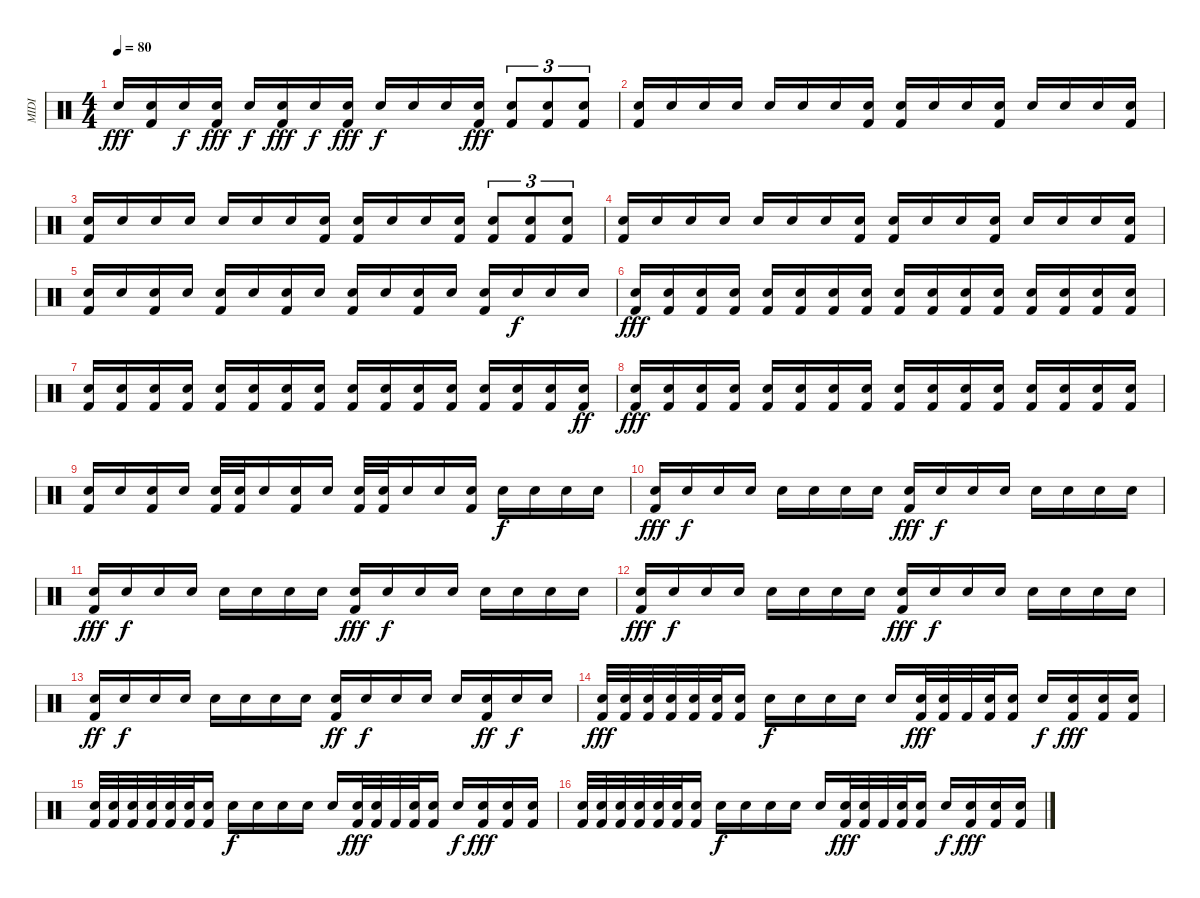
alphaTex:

\track ("MIDI" "MIDI") {instrument percussion}
\staff
\articulation defaults
\ts (4 4)
\tempo 80
\clef neutral
\ks c "Snare (hit)".16{dy fff}
("Kick (hit) 2" "Snare (hit)").16 "Snare (hit)".16{dy f} ("Kick (hit) 2" "Snare (hit)").16{dy fff} "Snare (hit)".16{dy f} ("Kick (hit) 2" "Snare (hit)").16{dy fff} "Snare (hit)".16{dy f} ("Kick (hit) 2" "Snare (hit)").16{dy fff} "Snare (hit)".16{dy f} "Snare (hit)".16 "Snare (hit)".16 ("Kick (hit) 2" "Snare (hit)").16{dy fff} ("Kick (hit) 2" "Snare (hit)").8{tu (3 2)} ("Kick (hit) 2" "Snare (hit)").8{tu (3 2)} ("Kick (hit) 2" "Snare (hit)").8{tu (3 2)} |
("Kick (hit) 2" "Snare (hit)").16 "Snare (hit)".16 "Snare (hit)".16 "Snare (hit)".16 "Snare (hit)".16 "Snare (hit)".16 "Snare (hit)".16 ("Kick (hit) 2" "Snare (hit)").16 ("Kick (hit) 2" "Snare (hit)").16 "Snare (hit)".16 "Snare (hit)".16 ("Kick (hit) 2" "Snare (hit)").16 "Snare (hit)".16 "Snare (hit)".16 "Snare (hit)".16 ("Kick (hit) 2" "Snare (hit)").16 |
("Kick (hit) 2" "Snare (hit)").16 "Snare (hit)".16 "Snare (hit)".16 "Snare (hit)".16 "Snare (hit)".16 "Snare (hit)".16 "Snare (hit)".16 ("Kick (hit) 2" "Snare (hit)").16 ("Kick (hit) 2" "Snare (hit)").16 "Snare (hit)".16 "Snare (hit)".16 ("Kick (hit) 2" "Snare (hit)").16 ("Kick (hit) 2" "Snare (hit)").8{tu (3 2)} ("Kick (hit) 2" "Snare (hit)").8{tu (3 2)} ("Kick (hit) 2" "Snare (hit)").8{tu (3 2)} |
("Kick (hit) 2" "Snare (hit)").16 "Snare (hit)".16 "Snare (hit)".16 "Snare (hit)".16 "Snare (hit)".16 "Snare (hit)".16 "Snare (hit)".16 ("Kick (hit) 2" "Snare (hit)").16 ("Kick (hit) 2" "Snare (hit)").16 "Snare (hit)".16 "Snare (hit)".16 ("Kick (hit) 2" "Snare (hit)").16 "Snare (hit)".16 "Snare (hit)".16 "Snare (hit)".16 ("Kick (hit) 2" "Snare (hit)").16 |
("Kick (hit) 2" "Snare (hit)").16 "Snare (hit)".16 ("Kick (hit) 2" "Snare (hit)").16 "Snare (hit)".16 ("Kick (hit) 2" "Snare (hit)").16 "Snare (hit)".16 ("Kick (hit) 2" "Snare (hit)").16 "Snare (hit)".16 ("Kick (hit) 2" "Snare (hit)").16 "Snare (hit)".16 ("Kick (hit) 2" "Snare (hit)").16 "Snare (hit)".16 ("Kick (hit) 2" "Snare (hit)").16 "Snare (hit)".16{dy f} "Snare (hit)".16 "Snare (hit)".16 |
("Kick (hit) 2" "Snare (hit)").16{dy fff} ("Kick (hit) 2" "Snare (hit)").16 ("Kick (hit) 2" "Snare (hit)").16 ("Kick (hit) 2" "Snare (hit)").16 ("Kick (hit) 2" "Snare (hit)").16 ("Kick (hit) 2" "Snare (hit)").16 ("Kick (hit) 2" "Snare (hit)").16 ("Kick (hit) 2" "Snare (hit)").16 ("Kick (hit) 2" "Snare (hit)").16 ("Kick (hit) 2" "Snare (hit)").16 ("Kick (hit) 2" "Snare (hit)").16 ("Kick (hit) 2" "Snare (hit)").16 ("Kick (hit) 2" "Snare (hit)").16 ("Kick (hit) 2" "Snare (hit)").16 ("Kick (hit) 2" "Snare (hit)").16 ("Kick (hit) 2" "Snare (hit)").16 |
("Kick (hit) 2" "Snare (hit)").16 ("Kick (hit) 2" "Snare (hit)").16 ("Kick (hit) 2" "Snare (hit)").16 ("Kick (hit) 2" "Snare (hit)").16 ("Kick (hit) 2" "Snare (hit)").16 ("Kick (hit) 2" "Snare (hit)").16 ("Kick (hit) 2" "Snare (hit)").16 ("Kick (hit) 2" "Snare (hit)").16 ("Kick (hit) 2" "Snare (hit)").16 ("Kick (hit) 2" "Snare (hit)").16 ("Kick (hit) 2" "Snare (hit)").16 ("Kick (hit) 2" "Snare (hit)").16 ("Kick (hit) 2" "Snare (hit)").16 ("Kick (hit) 2" "Snare (hit)").16 ("Kick (hit) 2" "Snare (hit)").16 ("Kick (hit) 2" "Snare (hit)").16{dy ff} |
("Kick (hit) 2" "Snare (hit)").16{dy fff} ("Kick (hit) 2" "Snare (hit)").16 ("Kick (hit) 2" "Snare (hit)").16 ("Kick (hit) 2" "Snare (hit)").16 ("Kick (hit) 2" "Snare (hit)").16 ("Kick (hit) 2" "Snare (hit)").16 ("Kick (hit) 2" "Snare (hit)").16 ("Kick (hit) 2" "Snare (hit)").16 ("Kick (hit) 2" "Snare (hit)").16 ("Kick (hit) 2" "Snare (hit)").16 ("Kick (hit) 2" "Snare (hit)").16 ("Kick (hit) 2" "Snare (hit)").16 ("Kick (hit) 2" "Snare (hit)").16 ("Kick (hit) 2" "Snare (hit)").16 ("Kick (hit) 2" "Snare (hit)").16 ("Kick (hit) 2" "Snare (hit)").16 |
("Kick (hit) 2" "Snare (hit)").16 "Snare (hit)".16 ("Kick (hit) 2" "Snare (hit)").16 "Snare (hit)".16 ("Kick (hit) 2" "Snare (hit)").32 ("Kick (hit) 2" "Snare (hit)").32 "Snare (hit)".16 ("Kick (hit) 2" "Snare (hit)").16 "Snare (hit)".16 ("Kick (hit) 2" "Snare (hit)").32 ("Kick (hit) 2" "Snare (hit)").32 "Snare (hit)".16 "Snare (hit)".16 ("Kick (hit) 2" "Snare (hit)").16 "Snare (hit)".16{dy f} "Snare (hit)".16 "Snare (hit)".16 "Snare (hit)".16 |
("Kick (hit) 2" "Snare (hit)").16{dy fff} "Snare (hit)".16{dy f} "Snare (hit)".16 "Snare (hit)".16 "Snare (hit)".16 "Snare (hit)".16 "Snare (hit)".16 "Snare (hit)".16 ("Kick (hit) 2" "Snare (hit)").16{dy fff} "Snare (hit)".16{dy f} "Snare (hit)".16 "Snare (hit)".16 "Snare (hit)".16 "Snare (hit)".16 "Snare (hit)".16 "Snare (hit)".16 |
("Kick (hit) 2" "Snare (hit)").16{dy fff} "Snare (hit)".16{dy f} "Snare (hit)".16 "Snare (hit)".16 "Snare (hit)".16 "Snare (hit)".16 "Snare (hit)".16 "Snare (hit)".16 ("Kick (hit) 2" "Snare (hit)").16{dy fff} "Snare (hit)".16{dy f} "Snare (hit)".16 "Snare (hit)".16 "Snare (hit)".16 "Snare (hit)".16 "Snare (hit)".16 "Snare (hit)".16 |
("Kick (hit) 2" "Snare (hit)").16{dy fff} "Snare (hit)".16{dy f} "Snare (hit)".16 "Snare (hit)".16 "Snare (hit)".16 "Snare (hit)".16 "Snare (hit)".16 "Snare (hit)".16 ("Kick (hit) 2" "Snare (hit)").16{dy fff} "Snare (hit)".16{dy f} "Snare (hit)".16 "Snare (hit)".16 "Snare (hit)".16 "Snare (hit)".16 "Snare (hit)".16 "Snare (hit)".16 |
("Kick (hit) 2" "Snare (hit)").16{dy ff} "Snare (hit)".16{dy f} "Snare (hit)".16 "Snare (hit)".16 "Snare (hit)".16 "Snare (hit)".16 "Snare (hit)".16 "Snare (hit)".16 ("Kick (hit) 2" "Snare (hit)").16{dy ff} "Snare (hit)".16{dy f} "Snare (hit)".16 "Snare (hit)".16 "Snare (hit)".16 ("Kick (hit) 2" "Snare (hit)").16{dy ff} "Snare (hit)".16{dy f} "Snare (hit)".16 |
("Kick (hit) 2" "Snare (hit)").32{dy fff} ("Kick (hit) 2" "Snare (hit)").32 ("Kick (hit) 2" "Snare (hit)").32 ("Kick (hit) 2" "Snare (hit)").32 ("Kick (hit) 2" "Snare (hit)").32 ("Kick (hit) 2" "Snare (hit)").32 ("Kick (hit) 2" "Snare (hit)").16 "Snare (hit)".16{dy f} "Snare (hit)".16 "Snare (hit)".16 "Snare (hit)".16 "Snare (hit)".16 ("Kick (hit) 2" "Snare (hit)").32{dy fff} ("Kick (hit) 2" "Snare (hit)").32 "Kick (hit) 2".32 ("Kick (hit) 2" "Snare (hit)").32 ("Kick (hit) 2" "Snare (hit)").16 "Snare (hit)".16{dy f} ("Kick (hit) 2" "Snare (hit)").16{dy fff} ("Kick (hit) 2" "Snare (hit)").16 ("Kick (hit) 2" "Snare (hit)").16 |
("Kick (hit) 2" "Snare (hit)").32 ("Kick (hit) 2" "Snare (hit)").32 ("Kick (hit) 2" "Snare (hit)").32 ("Kick (hit) 2" "Snare (hit)").32 ("Kick (hit) 2" "Snare (hit)").32 ("Kick (hit) 2" "Snare (hit)").32 ("Kick (hit) 2" "Snare (hit)").16 "Snare (hit)".16{dy f} "Snare (hit)".16 "Snare (hit)".16 "Snare (hit)".16 "Snare (hit)".16 ("Kick (hit) 2" "Snare (hit)").32{dy fff} ("Kick (hit) 2" "Snare (hit)").32 "Kick (hit) 2".32 ("Kick (hit) 2" "Snare (hit)").32 ("Kick (hit) 2" "Snare (hit)").16 "Snare (hit)".16{dy f} ("Kick (hit) 2" "Snare (hit)").16{dy fff} ("Kick (hit) 2" "Snare (hit)").16 ("Kick (hit) 2" "Snare (hit)").16 |
("Kick (hit) 2" "Snare (hit)").32 ("Kick (hit) 2" "Snare (hit)").32 ("Kick (hit) 2" "Snare (hit)").32 ("Kick (hit) 2" "Snare (hit)").32 ("Kick (hit) 2" "Snare (hit)").32 ("Kick (hit) 2" "Snare (hit)").32 ("Kick (hit) 2" "Snare (hit)").16 "Snare (hit)".16{dy f} "Snare (hit)".16 "Snare (hit)".16 "Snare (hit)".16 "Snare (hit)".16 ("Kick (hit) 2" "Snare (hit)").32{dy fff} ("Kick (hit) 2" "Snare (hit)").32 "Kick (hit) 2".32 ("Kick (hit) 2" "Snare (hit)").32 ("Kick (hit) 2" "Snare (hit)").16 "Snare (hit)".16{dy f} ("Kick (hit) 2" "Snare (hit)").16{dy fff} ("Kick (hit) 2" "Snare (hit)").16 ("Kick (hit) 2" "Snare (hit)").16
